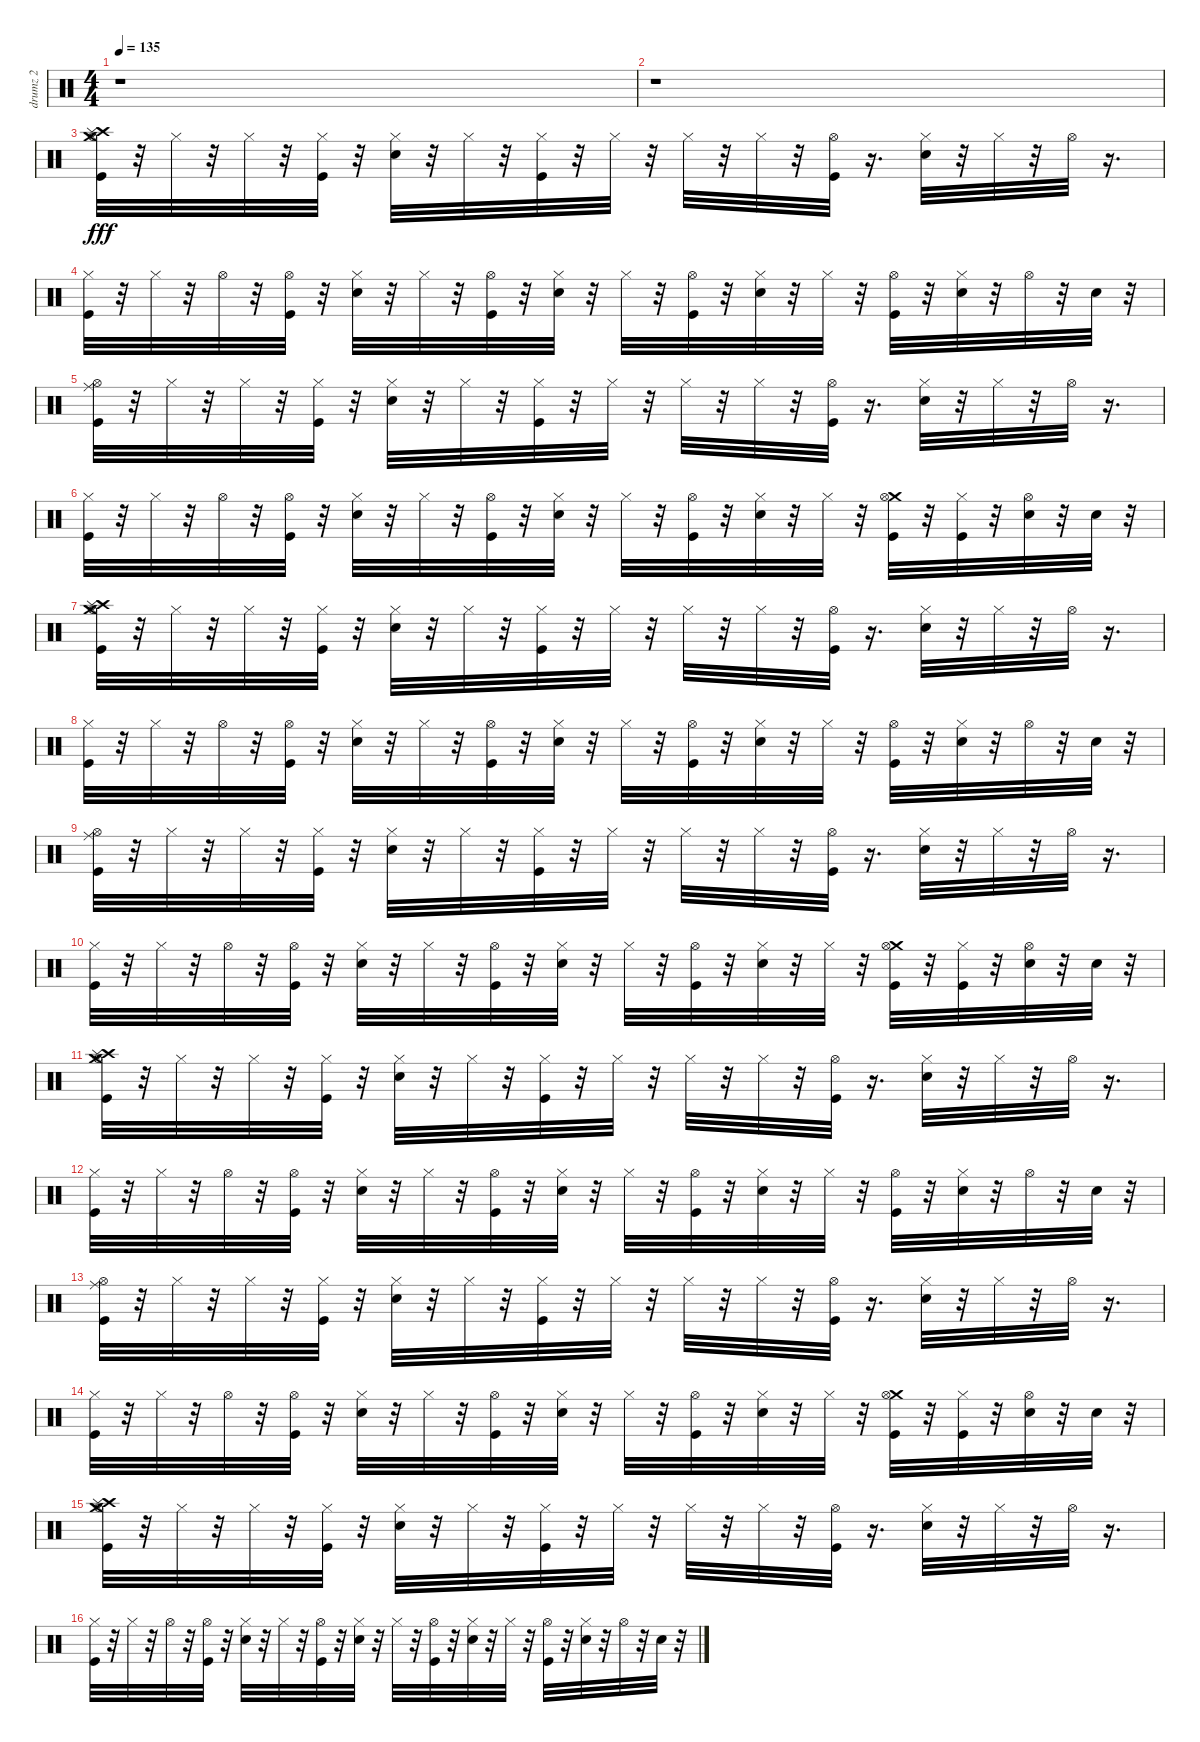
\track ("drumz 2" "drumz 2") {instrument percussion}
\staff {score}
\articulation defaults
\ts (4 4)
\tempo 135
\clef neutral
\ks c
r.1{dy fff} |
r.1 |
("Crash high (hit)" "Hi-Hat (open)" "Kick (hit)" "Splash (hit)" "Crash medium (hit)").32 r.32 "Hi-Hat (closed)".32 r.32 "Hi-Hat (closed)".32 r.32 ("Hi-Hat (closed)" "Kick (hit)").32 r.32 ("Hi-Hat (closed)" "Electric Snare (hit)").32 r.32 "Hi-Hat (closed)".32 r.32 ("Hi-Hat (closed)" "Kick (hit)").32 r.32 "Hi-Hat (closed)".32 r.32 "Hi-Hat (closed)".32 r.32 "Hi-Hat (closed)".32 r.32 ("Hi-Hat (open)" "Kick (hit)").32 r.16{d} ("Hi-Hat (closed)" "Electric Snare (hit)").32 r.32 "Hi-Hat (closed)".32 r.32 "Hi-Hat (open)".32 r.16{d} |
("Hi-Hat (closed)" "Kick (hit)").32 r.32 "Hi-Hat (closed)".32 r.32 "Hi-Hat (open)".32 r.32 ("Hi-Hat (open)" "Kick (hit)").32 r.32 ("Hi-Hat (closed)" "Electric Snare (hit)").32 r.32 "Hi-Hat (closed)".32 r.32 ("Hi-Hat (open)" "Kick (hit)").32 r.32 ("Hi-Hat (closed)" "Electric Snare (hit)").32 r.32 "Hi-Hat (closed)".32 r.32 ("Hi-Hat (open)" "Kick (hit)").32 r.32 ("Hi-Hat (closed)" "Electric Snare (hit)").32 r.32 "Hi-Hat (closed)".32 r.32 ("Hi-Hat (open)" "Kick (hit)").32 r.32 ("Hi-Hat (closed)" "Electric Snare (hit)").32 r.32 "Hi-Hat (open)".32 r.32 "Electric Snare (hit)".32 r.32 |
("Ride (middle)" "Hi-Hat (open)" "Kick (hit)").32 r.32 "Hi-Hat (closed)".32 r.32 "Hi-Hat (closed)".32 r.32 ("Hi-Hat (closed)" "Kick (hit)").32 r.32 ("Hi-Hat (closed)" "Electric Snare (hit)").32 r.32 "Hi-Hat (closed)".32 r.32 ("Kick (hit)" "Hi-Hat (closed)").32 r.32 "Hi-Hat (closed)".32 r.32 "Hi-Hat (closed)".32 r.32 "Hi-Hat (closed)".32 r.32 ("Kick (hit)" "Hi-Hat (open)").32 r.16{d} ("Electric Snare (hit)" "Hi-Hat (closed)").32 r.32 "Hi-Hat (closed)".32 r.32 "Hi-Hat (open)".32 r.16{d} |
("Hi-Hat (closed)" "Kick (hit)").32 r.32 "Hi-Hat (closed)".32 r.32 "Hi-Hat (open)".32 r.32 ("Hi-Hat (open)" "Kick (hit)").32 r.32 ("Hi-Hat (closed)" "Electric Snare (hit)").32 r.32 "Hi-Hat (closed)".32 r.32 ("Kick (hit)" "Hi-Hat (open)").32 r.32 ("Electric Snare (hit)" "Hi-Hat (closed)").32 r.32 "Hi-Hat (closed)".32 r.32 ("Hi-Hat (open)" "Kick (hit)").32 r.32 ("Hi-Hat (closed)" "Electric Snare (hit)").32 r.32 "Hi-Hat (closed)".32 r.32 ("Crash medium (hit)" "Hi-Hat (open)" "Kick (hit)").32 r.32 ("Hi-Hat (closed)" "Kick (hit)").32 r.32 ("Hi-Hat (open)" "Electric Snare (hit)").32 r.32 "Electric Snare (hit)".32 r.32 |
("Crash high (hit)" "Hi-Hat (open)" "Kick (hit)" "Splash (hit)" "Crash medium (hit)").32 r.32 "Hi-Hat (closed)".32 r.32 "Hi-Hat (closed)".32 r.32 ("Hi-Hat (closed)" "Kick (hit)").32 r.32 ("Hi-Hat (closed)" "Electric Snare (hit)").32 r.32 "Hi-Hat (closed)".32 r.32 ("Hi-Hat (closed)" "Kick (hit)").32 r.32 "Hi-Hat (closed)".32 r.32 "Hi-Hat (closed)".32 r.32 "Hi-Hat (closed)".32 r.32 ("Hi-Hat (open)" "Kick (hit)").32 r.16{d} ("Hi-Hat (closed)" "Electric Snare (hit)").32 r.32 "Hi-Hat (closed)".32 r.32 "Hi-Hat (open)".32 r.16{d} |
("Hi-Hat (closed)" "Kick (hit)").32 r.32 "Hi-Hat (closed)".32 r.32 "Hi-Hat (open)".32 r.32 ("Hi-Hat (open)" "Kick (hit)").32 r.32 ("Hi-Hat (closed)" "Electric Snare (hit)").32 r.32 "Hi-Hat (closed)".32 r.32 ("Hi-Hat (open)" "Kick (hit)").32 r.32 ("Hi-Hat (closed)" "Electric Snare (hit)").32 r.32 "Hi-Hat (closed)".32 r.32 ("Hi-Hat (open)" "Kick (hit)").32 r.32 ("Hi-Hat (closed)" "Electric Snare (hit)").32 r.32 "Hi-Hat (closed)".32 r.32 ("Hi-Hat (open)" "Kick (hit)").32 r.32 ("Hi-Hat (closed)" "Electric Snare (hit)").32 r.32 "Hi-Hat (open)".32 r.32 "Electric Snare (hit)".32 r.32 |
("Ride (middle)" "Hi-Hat (open)" "Kick (hit)").32 r.32 "Hi-Hat (closed)".32 r.32 "Hi-Hat (closed)".32 r.32 ("Hi-Hat (closed)" "Kick (hit)").32 r.32 ("Hi-Hat (closed)" "Electric Snare (hit)").32 r.32 "Hi-Hat (closed)".32 r.32 ("Kick (hit)" "Hi-Hat (closed)").32 r.32 "Hi-Hat (closed)".32 r.32 "Hi-Hat (closed)".32 r.32 "Hi-Hat (closed)".32 r.32 ("Kick (hit)" "Hi-Hat (open)").32 r.16{d} ("Electric Snare (hit)" "Hi-Hat (closed)").32 r.32 "Hi-Hat (closed)".32 r.32 "Hi-Hat (open)".32 r.16{d} |
("Hi-Hat (closed)" "Kick (hit)").32 r.32 "Hi-Hat (closed)".32 r.32 "Hi-Hat (open)".32 r.32 ("Hi-Hat (open)" "Kick (hit)").32 r.32 ("Hi-Hat (closed)" "Electric Snare (hit)").32 r.32 "Hi-Hat (closed)".32 r.32 ("Kick (hit)" "Hi-Hat (open)").32 r.32 ("Electric Snare (hit)" "Hi-Hat (closed)").32 r.32 "Hi-Hat (closed)".32 r.32 ("Hi-Hat (open)" "Kick (hit)").32 r.32 ("Hi-Hat (closed)" "Electric Snare (hit)").32 r.32 "Hi-Hat (closed)".32 r.32 ("Crash medium (hit)" "Hi-Hat (open)" "Kick (hit)").32 r.32 ("Hi-Hat (closed)" "Kick (hit)").32 r.32 ("Hi-Hat (open)" "Electric Snare (hit)").32 r.32 "Electric Snare (hit)".32 r.32 |
("Crash high (hit)" "Hi-Hat (open)" "Kick (hit)" "Splash (hit)" "Crash medium (hit)").32 r.32 "Hi-Hat (closed)".32 r.32 "Hi-Hat (closed)".32 r.32 ("Hi-Hat (closed)" "Kick (hit)").32 r.32 ("Hi-Hat (closed)" "Electric Snare (hit)").32 r.32 "Hi-Hat (closed)".32 r.32 ("Hi-Hat (closed)" "Kick (hit)").32 r.32 "Hi-Hat (closed)".32 r.32 "Hi-Hat (closed)".32 r.32 "Hi-Hat (closed)".32 r.32 ("Hi-Hat (open)" "Kick (hit)").32 r.16{d} ("Hi-Hat (closed)" "Electric Snare (hit)").32 r.32 "Hi-Hat (closed)".32 r.32 "Hi-Hat (open)".32 r.16{d} |
("Hi-Hat (closed)" "Kick (hit)").32 r.32 "Hi-Hat (closed)".32 r.32 "Hi-Hat (open)".32 r.32 ("Hi-Hat (open)" "Kick (hit)").32 r.32 ("Hi-Hat (closed)" "Electric Snare (hit)").32 r.32 "Hi-Hat (closed)".32 r.32 ("Hi-Hat (open)" "Kick (hit)").32 r.32 ("Hi-Hat (closed)" "Electric Snare (hit)").32 r.32 "Hi-Hat (closed)".32 r.32 ("Hi-Hat (open)" "Kick (hit)").32 r.32 ("Hi-Hat (closed)" "Electric Snare (hit)").32 r.32 "Hi-Hat (closed)".32 r.32 ("Hi-Hat (open)" "Kick (hit)").32 r.32 ("Hi-Hat (closed)" "Electric Snare (hit)").32 r.32 "Hi-Hat (open)".32 r.32 "Electric Snare (hit)".32 r.32 |
("Ride (middle)" "Hi-Hat (open)" "Kick (hit)").32 r.32 "Hi-Hat (closed)".32 r.32 "Hi-Hat (closed)".32 r.32 ("Hi-Hat (closed)" "Kick (hit)").32 r.32 ("Hi-Hat (closed)" "Electric Snare (hit)").32 r.32 "Hi-Hat (closed)".32 r.32 ("Kick (hit)" "Hi-Hat (closed)").32 r.32 "Hi-Hat (closed)".32 r.32 "Hi-Hat (closed)".32 r.32 "Hi-Hat (closed)".32 r.32 ("Kick (hit)" "Hi-Hat (open)").32 r.16{d} ("Electric Snare (hit)" "Hi-Hat (closed)").32 r.32 "Hi-Hat (closed)".32 r.32 "Hi-Hat (open)".32 r.16{d} |
("Hi-Hat (closed)" "Kick (hit)").32 r.32 "Hi-Hat (closed)".32 r.32 "Hi-Hat (open)".32 r.32 ("Hi-Hat (open)" "Kick (hit)").32 r.32 ("Hi-Hat (closed)" "Electric Snare (hit)").32 r.32 "Hi-Hat (closed)".32 r.32 ("Kick (hit)" "Hi-Hat (open)").32 r.32 ("Electric Snare (hit)" "Hi-Hat (closed)").32 r.32 "Hi-Hat (closed)".32 r.32 ("Hi-Hat (open)" "Kick (hit)").32 r.32 ("Hi-Hat (closed)" "Electric Snare (hit)").32 r.32 "Hi-Hat (closed)".32 r.32 ("Crash medium (hit)" "Hi-Hat (open)" "Kick (hit)").32 r.32 ("Hi-Hat (closed)" "Kick (hit)").32 r.32 ("Hi-Hat (open)" "Electric Snare (hit)").32 r.32 "Electric Snare (hit)".32 r.32 |
("Crash high (hit)" "Hi-Hat (open)" "Kick (hit)" "Splash (hit)" "Crash medium (hit)").32 r.32 "Hi-Hat (closed)".32 r.32 "Hi-Hat (closed)".32 r.32 ("Hi-Hat (closed)" "Kick (hit)").32 r.32 ("Hi-Hat (closed)" "Electric Snare (hit)").32 r.32 "Hi-Hat (closed)".32 r.32 ("Hi-Hat (closed)" "Kick (hit)").32 r.32 "Hi-Hat (closed)".32 r.32 "Hi-Hat (closed)".32 r.32 "Hi-Hat (closed)".32 r.32 ("Hi-Hat (open)" "Kick (hit)").32 r.16{d} ("Hi-Hat (closed)" "Electric Snare (hit)").32 r.32 "Hi-Hat (closed)".32 r.32 "Hi-Hat (open)".32 r.16{d} |
("Hi-Hat (closed)" "Kick (hit)").32 r.32 "Hi-Hat (closed)".32 r.32 "Hi-Hat (open)".32 r.32 ("Hi-Hat (open)" "Kick (hit)").32 r.32 ("Hi-Hat (closed)" "Electric Snare (hit)").32 r.32 "Hi-Hat (closed)".32 r.32 ("Hi-Hat (open)" "Kick (hit)").32 r.32 ("Hi-Hat (closed)" "Electric Snare (hit)").32 r.32 "Hi-Hat (closed)".32 r.32 ("Hi-Hat (open)" "Kick (hit)").32 r.32 ("Hi-Hat (closed)" "Electric Snare (hit)").32 r.32 "Hi-Hat (closed)".32 r.32 ("Hi-Hat (open)" "Kick (hit)").32 r.32 ("Hi-Hat (closed)" "Electric Snare (hit)").32 r.32 "Hi-Hat (open)".32 r.32 "Electric Snare (hit)".32 r.32
